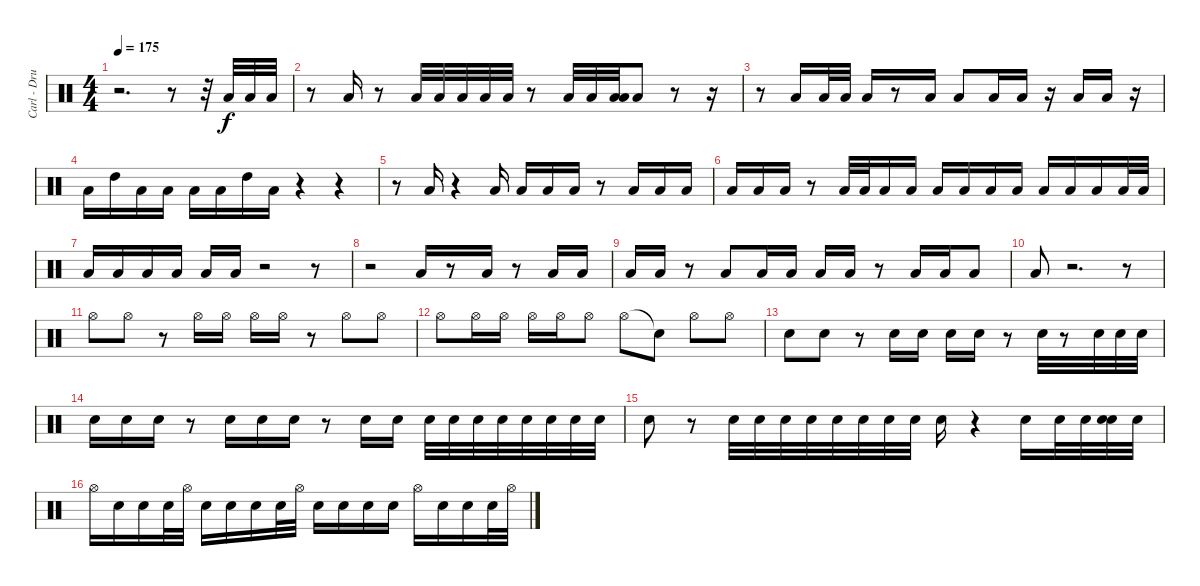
\track ("Carl - Drums II" "Carl - Dru") {instrument percussion}
\staff {score}
\articulation defaults
\ts (4 4)
\tempo 175
\clef neutral
\ks c
r.2{d dy f} r.8 r.32 "Low Floor Tom (hit)".32 "Low Floor Tom (hit)".32 "Low Floor Tom (hit)".32 |
r.8 "Low Tom (hit)".16 r.8 "Low Floor Tom (hit)".32 "Low Tom (hit)".32 "Low Floor Tom (hit)".32 "Low Tom (hit)".32 "Low Tom (hit)".32 r.8 "Low Floor Tom (hit)".32 "Low Floor Tom (hit)".32 ("Low Floor Tom (hit)" "Low Tom (hit)").32 "Low Tom (hit)".8 r.8 r.16 |
r.8 "Low Floor Tom (hit)".16 "Low Floor Tom (hit)".32 "Low Tom (hit)".32 "Low Tom (hit)".16 r.8 "Low Floor Tom (hit)".16 "Low Floor Tom (hit)".8 "Low Tom (hit)".16 "Low Tom (hit)".16 r.16 "Low Floor Tom (hit)".16 "Low Floor Tom (hit)".16 r.16 |
"Low Tom (hit)".16 "High Tom (hit)".16 "Low Tom (hit)".16 "Low Floor Tom (hit)".16 "Low Floor Tom (hit)".16 "Low Tom (hit)".16 "High Tom (hit)".16 "Low Tom (hit)".16 r.4 r.4 |
r.8 "Low Tom (hit)".16 r.4 "Low Tom (hit)".16 "Low Tom (hit)".16 "Low Tom (hit)".16 "Low Tom (hit)".16 r.8 "Low Floor Tom (hit)".16 "Low Floor Tom (hit)".16 "Low Tom (hit)".16 |
"Low Tom (hit)".16 "Low Tom (hit)".16 "Low Floor Tom (hit)".16 r.8 "Low Tom (hit)".32 "Low Tom (hit)".32 "Low Tom (hit)".16 "Low Floor Tom (hit)".16 "Low Floor Tom (hit)".16 "Low Tom (hit)".16 "Low Tom (hit)".16 "Low Tom (hit)".16 "Low Floor Tom (hit)".16 "Low Floor Tom (hit)".16 "Low Tom (hit)".16 "Low Floor Tom (hit)".32 "Low Floor Tom (hit)".32 |
"Low Tom (hit)".16 "Low Tom (hit)".16 "Low Tom (hit)".16 "Low Tom (hit)".16 "Low Floor Tom (hit)".16 "Low Floor Tom (hit)".16 r.2 r.8 |
r.2 "Low Floor Tom (hit)".16 r.8 "Low Floor Tom (hit)".16 r.8 "Low Tom (hit)".16 "Low Tom (hit)".16 |
"Low Tom (hit)".16 "Low Floor Tom (hit)".16 r.8 "Low Floor Tom (hit)".8 "Low Tom (hit)".16 "Low Tom (hit)".16 "Low Tom (hit)".16 "Low Floor Tom (hit)".16 r.8 "Low Tom (hit)".16 "Low Tom (hit)".16 "Low Floor Tom (hit)".8 |
"Low Floor Tom (hit)".8 r.2{d} r.8 |
"Hi-Hat (open)".8 "Hi-Hat (open)".8 r.8 "Hi-Hat (open)".16 "Hi-Hat (open)".16 "Hi-Hat (open)".16 "Hi-Hat (open)".16 r.8 "Hi-Hat (open)".8 "Hi-Hat (open)".8 |
"Hi-Hat (open)".8 "Hi-Hat (open)".16 "Hi-Hat (open)".16 "Hi-Hat (open)".16 "Hi-Hat (open)".16 "Hi-Hat (open)".8 "Hi-Hat (open)".8 "Snare (hit)"{t}.8 "Hi-Hat (open)".8 "Hi-Hat (open)".8 |
"Snare (hit) 2".8 "Snare (hit) 2".8 r.8 "Snare (hit) 2".16 "Snare (hit) 2".16 "Snare (hit) 2".16 "Snare (hit) 2".16 r.8 "Snare (hit) 2".32 r.8 "Snare (hit) 2".32 "Snare (hit) 2".32 "Snare (hit) 2".32 |
"Snare (hit) 2".16 "Snare (hit) 2".16 "Snare (hit) 2".16 r.8 "Snare (hit) 2".16 "Snare (hit) 2".16 "Snare (hit) 2".16 r.8 "Snare (hit) 2".16 "Snare (hit) 2".16 "Snare (hit) 2".32 "Snare (hit) 2".32 "Snare (hit) 2".32 "Snare (hit) 2".32 "Snare (hit) 2".32 "Snare (hit) 2".32 "Snare (hit) 2".32 "Snare (hit) 2".32 |
"Snare (hit) 2".8 r.8 "Snare (hit) 2".32 "Snare (hit) 2".32 "Snare (hit) 2".32 "Snare (hit) 2".32 "Snare (hit) 2".32 "Snare (hit) 2".32 "Snare (hit) 2".32 "Snare (hit) 2".32 "Snare (hit) 2".16 r.4 "Snare (hit) 2".16 "Snare (hit) 2".32 "Snare (hit) 2".32 ("Snare (hit) 2" "Snare (hit) 2").32 "Snare (hit) 2".32 |
"Hi-Hat (open)".16 "Snare (hit) 2".16 "Snare (hit) 2".16 "Snare (hit) 2".32 "Hi-Hat (open)".32 "Snare (hit) 2".16 "Snare (hit) 2".16 "Snare (hit) 2".16 "Snare (hit) 2".32 "Hi-Hat (open)".32 "Snare (hit) 2".16 "Snare (hit) 2".16 "Snare (hit) 2".16 "Snare (hit) 2".16 "Hi-Hat (open)".16 "Snare (hit) 2".16 "Snare (hit) 2".16 "Snare (hit) 2".32 "Hi-Hat (open)".32
